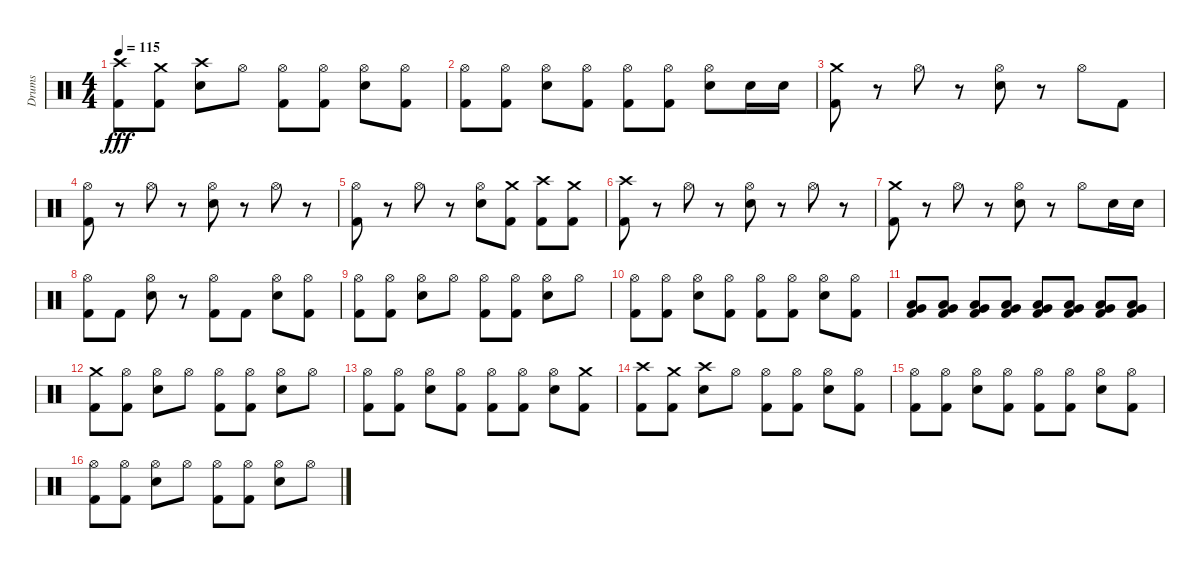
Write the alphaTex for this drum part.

\track ("Drums" "Drums") {instrument percussion}
\staff {score}
\articulation defaults
\ts (4 4)
\tempo 115
\clef neutral
\ks c
("Kick (hit) 2" "Crash high (hit)").8{dy fff} ("Crash medium (hit)" "Kick (hit) 2").8 ("Crash high (hit)" "Electric Snare (hit)").8 "Hi-Hat (open)".8 ("Hi-Hat (open)" "Kick (hit) 2").8 ("Hi-Hat (open)" "Kick (hit) 2").8 ("Hi-Hat (open)" "Electric Snare (hit)").8 ("Hi-Hat (open)" "Kick (hit) 2").8 |
("Hi-Hat (open)" "Kick (hit) 2").8 ("Hi-Hat (open)" "Kick (hit) 2").8 ("Hi-Hat (open)" "Electric Snare (hit)").8 ("Hi-Hat (open)" "Kick (hit) 2").8 ("Hi-Hat (open)" "Kick (hit) 2").8 ("Hi-Hat (open)" "Kick (hit) 2").8 ("Hi-Hat (open)" "Electric Snare (hit)").8 "Electric Snare (hit)".16 "Electric Snare (hit)".16 |
("Crash medium (hit)" "Kick (hit) 2").8 r.8 "Hi-Hat (open)".8 r.8 ("Hi-Hat (open)" "Electric Snare (hit)").8 r.8 "Hi-Hat (open)".8 "Kick (hit) 2".8 |
("Hi-Hat (open)" "Kick (hit) 2").8 r.8 "Hi-Hat (open)".8 r.8 ("Hi-Hat (open)" "Electric Snare (hit)").8 r.8 "Hi-Hat (open)".8 r.8 |
("Hi-Hat (open)" "Kick (hit) 2").8 r.8 "Hi-Hat (open)".8 r.8 ("Hi-Hat (open)" "Electric Snare (hit)").8 ("Kick (hit) 2" "Crash medium (hit)").8 ("Kick (hit) 2" "Crash high (hit)").8 ("Kick (hit) 2" "Crash medium (hit)").8 |
("Kick (hit) 2" "Crash high (hit)").8 r.8 "Hi-Hat (open)".8 r.8 ("Hi-Hat (open)" "Electric Snare (hit)").8 r.8 "Hi-Hat (open)".8 r.8 |
("Kick (hit) 2" "Crash medium (hit)").8 r.8 "Hi-Hat (open)".8 r.8 ("Hi-Hat (open)" "Electric Snare (hit)").8 r.8 "Hi-Hat (open)".8 "Electric Snare (hit)".16 "Electric Snare (hit)".16 |
("Hi-Hat (open)" "Kick (hit) 2").8 "Kick (hit) 2".8 ("Hi-Hat (open)" "Electric Snare (hit)").8 r.8 ("Hi-Hat (open)" "Kick (hit) 2").8 "Kick (hit) 2".8 ("Hi-Hat (open)" "Electric Snare (hit)").8 ("Kick (hit) 2" "Hi-Hat (open)").8 |
("Hi-Hat (open)" "Kick (hit) 2").8 ("Hi-Hat (open)" "Kick (hit) 2").8 ("Hi-Hat (open)" "Electric Snare (hit)").8 "Hi-Hat (open)".8 ("Hi-Hat (open)" "Kick (hit) 2").8 ("Hi-Hat (open)" "Kick (hit) 2").8 ("Hi-Hat (open)" "Electric Snare (hit)").8 "Hi-Hat (open)".8 |
("Hi-Hat (open)" "Kick (hit) 2").8 ("Hi-Hat (open)" "Kick (hit) 2").8 ("Hi-Hat (open)" "Electric Snare (hit)").8 ("Hi-Hat (open)" "Kick (hit) 2").8 ("Hi-Hat (open)" "Kick (hit) 2").8 ("Hi-Hat (open)" "Kick (hit) 2").8 ("Hi-Hat (open)" "Electric Snare (hit)").8 ("Hi-Hat (open)" "Kick (hit) 2").8 |
("Low Tom (hit)" "Very Low Tom (hit)" "Kick (hit) 2").8 ("Kick (hit) 2" "Very Low Tom (hit)" "Low Tom (hit)").8 ("Kick (hit) 2" "Very Low Tom (hit)" "Low Tom (hit)").8 ("Kick (hit) 2" "Very Low Tom (hit)" "Low Tom (hit)").8 ("Kick (hit) 2" "Very Low Tom (hit)" "Low Tom (hit)").8 ("Kick (hit) 2" "Very Low Tom (hit)" "Low Tom (hit)").8 ("Kick (hit) 2" "Very Low Tom (hit)" "Low Tom (hit)").8 ("Kick (hit) 2" "Very Low Tom (hit)" "Low Tom (hit)").8 |
("Kick (hit) 2" "Crash medium (hit)").8 ("Hi-Hat (open)" "Kick (hit) 2").8 ("Hi-Hat (open)" "Electric Snare (hit)").8 "Hi-Hat (open)".8 ("Hi-Hat (open)" "Kick (hit) 2").8 ("Hi-Hat (open)" "Kick (hit) 2").8 ("Hi-Hat (open)" "Electric Snare (hit)").8 "Hi-Hat (open)".8 |
("Hi-Hat (open)" "Kick (hit) 2").8 ("Hi-Hat (open)" "Kick (hit) 2").8 ("Hi-Hat (open)" "Electric Snare (hit)").8 ("Kick (hit) 2" "Hi-Hat (open)").8 ("Hi-Hat (open)" "Kick (hit) 2").8 ("Hi-Hat (open)" "Kick (hit) 2").8 ("Hi-Hat (open)" "Electric Snare (hit)").8 ("Crash medium (hit)" "Kick (hit) 2").8 |
("Kick (hit) 2" "Crash high (hit)").8 ("Crash medium (hit)" "Kick (hit) 2").8 ("Crash high (hit)" "Electric Snare (hit)").8 "Hi-Hat (open)".8 ("Hi-Hat (open)" "Kick (hit) 2").8 ("Hi-Hat (open)" "Kick (hit) 2").8 ("Hi-Hat (open)" "Electric Snare (hit)").8 ("Hi-Hat (open)" "Kick (hit) 2").8 |
("Hi-Hat (open)" "Kick (hit) 2").8 ("Hi-Hat (open)" "Kick (hit) 2").8 ("Hi-Hat (open)" "Electric Snare (hit)").8 ("Hi-Hat (open)" "Kick (hit) 2").8 ("Hi-Hat (open)" "Kick (hit) 2").8 ("Hi-Hat (open)" "Kick (hit) 2").8 ("Hi-Hat (open)" "Electric Snare (hit)").8 ("Hi-Hat (open)" "Kick (hit) 2").8 |
("Kick (hit) 2" "Hi-Hat (open)").8 ("Hi-Hat (open)" "Kick (hit) 2").8 ("Hi-Hat (open)" "Electric Snare (hit)").8 "Hi-Hat (open)".8 ("Hi-Hat (open)" "Kick (hit) 2").8 ("Hi-Hat (open)" "Kick (hit) 2").8 ("Hi-Hat (open)" "Electric Snare (hit)").8 "Hi-Hat (open)".8
